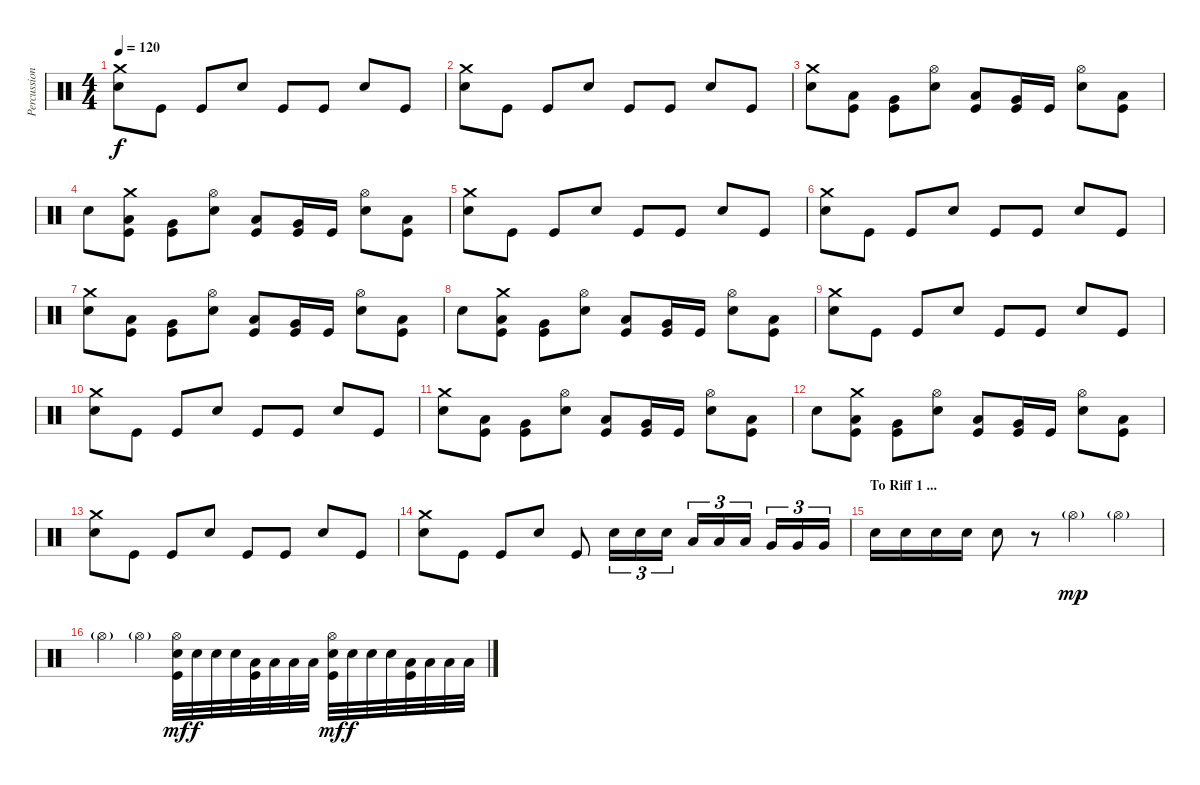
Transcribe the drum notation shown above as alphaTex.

\track ("Percussions" "Percussion") {instrument percussion}
\staff {score}
\articulation defaults
\ts (4 4)
\tempo 120
\clef neutral
\ks c
("Crash medium (hit)" "Electric Snare (hit)").8{dy f} "Kick (hit)".8 "Kick (hit)".8 "Electric Snare (hit)".8 "Kick (hit)".8 "Kick (hit)".8 "Electric Snare (hit)".8 "Kick (hit)".8 |
("Crash medium (hit)" "Electric Snare (hit)").8 "Kick (hit)".8 "Kick (hit)".8 "Electric Snare (hit)".8 "Kick (hit)".8 "Kick (hit)".8 "Electric Snare (hit)".8 "Kick (hit)".8 |
("Crash medium (hit)" "Electric Snare (hit)").8 ("Low Tom (hit)" "Kick (hit)").8 ("Very Low Tom (hit)" "Kick (hit)").8 ("Hi-Hat (open)" "Electric Snare (hit)").8 ("Low Tom (hit)" "Kick (hit)").8 ("Very Low Tom (hit)" "Kick (hit)").16 "Kick (hit)".16 ("Hi-Hat (open)" "Electric Snare (hit)").8 ("Low Tom (hit)" "Kick (hit)").8 |
"Electric Snare (hit)".8 ("Crash medium (hit)" "Low Tom (hit)" "Kick (hit)").8 ("Very Low Tom (hit)" "Kick (hit)").8 ("Hi-Hat (open)" "Electric Snare (hit)").8 ("Low Tom (hit)" "Kick (hit)").8 ("Very Low Tom (hit)" "Kick (hit)").16 "Kick (hit)".16 ("Hi-Hat (open)" "Electric Snare (hit)").8 ("Low Tom (hit)" "Kick (hit)").8 |
("Crash medium (hit)" "Electric Snare (hit)").8 "Kick (hit)".8 "Kick (hit)".8 "Electric Snare (hit)".8 "Kick (hit)".8 "Kick (hit)".8 "Electric Snare (hit)".8 "Kick (hit)".8 |
("Crash medium (hit)" "Electric Snare (hit)").8 "Kick (hit)".8 "Kick (hit)".8 "Electric Snare (hit)".8 "Kick (hit)".8 "Kick (hit)".8 "Electric Snare (hit)".8 "Kick (hit)".8 |
("Crash medium (hit)" "Electric Snare (hit)").8 ("Low Tom (hit)" "Kick (hit)").8 ("Very Low Tom (hit)" "Kick (hit)").8 ("Hi-Hat (open)" "Electric Snare (hit)").8 ("Low Tom (hit)" "Kick (hit)").8 ("Very Low Tom (hit)" "Kick (hit)").16 "Kick (hit)".16 ("Hi-Hat (open)" "Electric Snare (hit)").8 ("Low Tom (hit)" "Kick (hit)").8 |
"Electric Snare (hit)".8 ("Crash medium (hit)" "Low Tom (hit)" "Kick (hit)").8 ("Very Low Tom (hit)" "Kick (hit)").8 ("Hi-Hat (open)" "Electric Snare (hit)").8 ("Low Tom (hit)" "Kick (hit)").8 ("Very Low Tom (hit)" "Kick (hit)").16 "Kick (hit)".16 ("Hi-Hat (open)" "Electric Snare (hit)").8 ("Low Tom (hit)" "Kick (hit)").8 |
("Crash medium (hit)" "Electric Snare (hit)").8 "Kick (hit)".8 "Kick (hit)".8 "Electric Snare (hit)".8 "Kick (hit)".8 "Kick (hit)".8 "Electric Snare (hit)".8 "Kick (hit)".8 |
("Crash medium (hit)" "Electric Snare (hit)").8 "Kick (hit)".8 "Kick (hit)".8 "Electric Snare (hit)".8 "Kick (hit)".8 "Kick (hit)".8 "Electric Snare (hit)".8 "Kick (hit)".8 |
("Crash medium (hit)" "Electric Snare (hit)").8 ("Low Tom (hit)" "Kick (hit)").8 ("Very Low Tom (hit)" "Kick (hit)").8 ("Hi-Hat (open)" "Electric Snare (hit)").8 ("Low Tom (hit)" "Kick (hit)").8 ("Very Low Tom (hit)" "Kick (hit)").16 "Kick (hit)".16 ("Hi-Hat (open)" "Electric Snare (hit)").8 ("Low Tom (hit)" "Kick (hit)").8 |
"Electric Snare (hit)".8 ("Crash medium (hit)" "Low Tom (hit)" "Kick (hit)").8 ("Very Low Tom (hit)" "Kick (hit)").8 ("Hi-Hat (open)" "Electric Snare (hit)").8 ("Low Tom (hit)" "Kick (hit)").8 ("Very Low Tom (hit)" "Kick (hit)").16 "Kick (hit)".16 ("Hi-Hat (open)" "Electric Snare (hit)").8 ("Low Tom (hit)" "Kick (hit)").8 |
("Crash medium (hit)" "Electric Snare (hit)").8 "Kick (hit)".8 "Kick (hit)".8 "Electric Snare (hit)".8 "Kick (hit)".8 "Kick (hit)".8 "Electric Snare (hit)".8 "Kick (hit)".8 |
("Crash medium (hit)" "Electric Snare (hit)").8 "Kick (hit)".8 "Kick (hit)".8 "Electric Snare (hit)".8 "Kick (hit)".8 "Electric Snare (hit)".16{tu (3 2)} "Electric Snare (hit)".16{tu (3 2)} "Electric Snare (hit)".16{tu (3 2)} "Low Tom (hit)".16{tu (3 2)} "Low Tom (hit)".16{tu (3 2)} "Low Tom (hit)".16{tu (3 2)} "Very Low Tom (hit)".16{tu (3 2)} "Very Low Tom (hit)".16{tu (3 2)} "Very Low Tom (hit)".16{tu (3 2)} |
\section ("" "To Riff 1 ...")
"Electric Snare (hit)".16 "Electric Snare (hit)".16 "Electric Snare (hit)".16 "Electric Snare (hit)".16 "Electric Snare (hit)".8 r.8 "Hi-Hat (open)"{g}.4{dy mp} "Hi-Hat (open)"{g}.4 |
"Hi-Hat (open)"{g}.4 "Hi-Hat (open)"{g}.4 ("Hi-Hat (open)" "Electric Snare (hit)" "Kick (hit)").32{dy mf} "Electric Snare (hit)".32{dy f} "Electric Snare (hit)".32 "Electric Snare (hit)".32 ("Low Tom (hit)" "Kick (hit)").32 "Low Tom (hit)".32 "Low Tom (hit)".32 "Low Tom (hit)".32 ("Hi-Hat (open)" "Electric Snare (hit)" "Kick (hit)").32{dy mf} "Electric Snare (hit)".32{dy f} "Electric Snare (hit)".32 "Electric Snare (hit)".32 ("Low Tom (hit)" "Kick (hit)").32 "Low Tom (hit)".32 "Low Tom (hit)".32 "Low Tom (hit)".32
